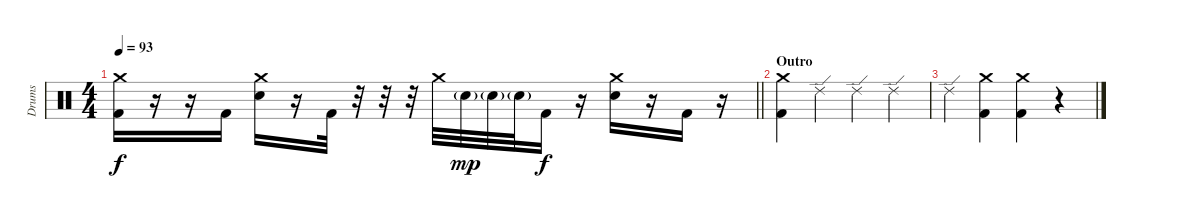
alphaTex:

\track ("Drums" "Drums") {instrument percussion}
\staff {score}
\articulation defaults
\ts (4 4)
\tempo 93
\clef neutral
\barLineRight lightlight
\ks c
("Crash medium (hit)" "Kick (hit) 2").16{dy f} r.16 r.16 "Kick (hit) 2".16 ("Crash medium (hit)" "Electric Snare (hit)").16 r.16 "Kick (hit) 2".32 r.32 r.32 r.32 "Crash medium (hit)".32 "Electric Snare (hit)"{g}.32{dy mp} "Electric Snare (hit)"{g}.32 "Electric Snare (hit)"{g}.32 "Kick (hit) 2".16{dy f} r.16 ("Crash medium (hit)" "Electric Snare (hit)").16 r.16 "Kick (hit) 2".16 r.16 |
\section ("" "Outro")
("Crash medium (hit)" "Kick (hit) 2").4 "Ride (edge) 2".4 "Ride (edge) 2".4 "Ride (edge) 2".4 |
"Ride (edge) 2".4 ("Crash medium (hit)" "Kick (hit) 2").4 ("Crash medium (hit)" "Kick (hit) 2").4 r.4
